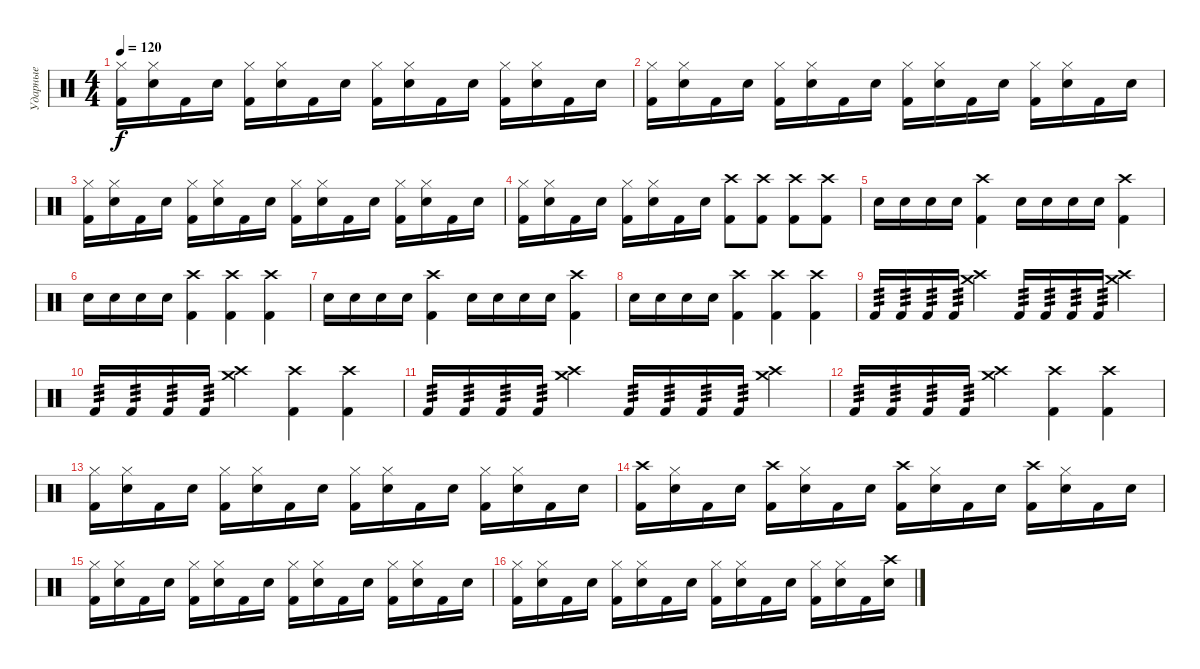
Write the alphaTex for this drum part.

\track ("Ударные" "Ударные") {instrument percussion}
\staff {score}
\articulation defaults
\ts (4 4)
\tempo 120
\clef neutral
\ks c
("Hi-Hat (closed)" "Kick (hit) 2").16{dy f} ("Hi-Hat (closed)" "Electric Snare (hit)").16 "Kick (hit) 2".16 "Electric Snare (hit)".16 ("Hi-Hat (closed)" "Kick (hit) 2").16 ("Hi-Hat (closed)" "Electric Snare (hit)").16 "Kick (hit) 2".16 "Electric Snare (hit)".16 ("Hi-Hat (closed)" "Kick (hit) 2").16 ("Hi-Hat (closed)" "Electric Snare (hit)").16 "Kick (hit) 2".16 "Electric Snare (hit)".16 ("Hi-Hat (closed)" "Kick (hit) 2").16 ("Hi-Hat (closed)" "Electric Snare (hit)").16 "Kick (hit) 2".16 "Electric Snare (hit)".16 |
("Hi-Hat (closed)" "Kick (hit) 2").16 ("Hi-Hat (closed)" "Electric Snare (hit)").16 "Kick (hit) 2".16 "Electric Snare (hit)".16 ("Hi-Hat (closed)" "Kick (hit) 2").16 ("Hi-Hat (closed)" "Electric Snare (hit)").16 "Kick (hit) 2".16 "Electric Snare (hit)".16 ("Hi-Hat (closed)" "Kick (hit) 2").16 ("Hi-Hat (closed)" "Electric Snare (hit)").16 "Kick (hit) 2".16 "Electric Snare (hit)".16 ("Hi-Hat (closed)" "Kick (hit) 2").16 ("Hi-Hat (closed)" "Electric Snare (hit)").16 "Kick (hit) 2".16 "Electric Snare (hit)".16 |
("Hi-Hat (closed)" "Kick (hit) 2").16 ("Hi-Hat (closed)" "Electric Snare (hit)").16 "Kick (hit) 2".16 "Electric Snare (hit)".16 ("Hi-Hat (closed)" "Kick (hit) 2").16 ("Hi-Hat (closed)" "Electric Snare (hit)").16 "Kick (hit) 2".16 "Electric Snare (hit)".16 ("Hi-Hat (closed)" "Kick (hit) 2").16 ("Hi-Hat (closed)" "Electric Snare (hit)").16 "Kick (hit) 2".16 "Electric Snare (hit)".16 ("Hi-Hat (closed)" "Kick (hit) 2").16 ("Hi-Hat (closed)" "Electric Snare (hit)").16 "Kick (hit) 2".16 "Electric Snare (hit)".16 |
("Hi-Hat (closed)" "Kick (hit) 2").16 ("Hi-Hat (closed)" "Electric Snare (hit)").16 "Kick (hit) 2".16 "Electric Snare (hit)".16 ("Hi-Hat (closed)" "Kick (hit) 2").16 ("Hi-Hat (closed)" "Electric Snare (hit)").16 "Kick (hit) 2".16 "Electric Snare (hit)".16 ("Crash high (hit)" "Kick (hit) 2").8 ("Crash high (hit)" "Kick (hit) 2").8 ("Crash high (hit)" "Kick (hit) 2").8 ("Crash high (hit)" "Kick (hit) 2").8 |
"Electric Snare (hit)".16 "Electric Snare (hit)".16 "Electric Snare (hit)".16 "Electric Snare (hit)".16 ("Crash high (hit)" "Kick (hit) 2").4 "Electric Snare (hit)".16 "Electric Snare (hit)".16 "Electric Snare (hit)".16 "Electric Snare (hit)".16 ("Crash high (hit)" "Kick (hit) 2").4 |
"Electric Snare (hit)".16 "Electric Snare (hit)".16 "Electric Snare (hit)".16 "Electric Snare (hit)".16 ("Crash high (hit)" "Kick (hit) 2").4 ("Crash high (hit)" "Kick (hit) 2").4 ("Kick (hit) 2" "Crash high (hit)").4 |
"Electric Snare (hit)".16 "Electric Snare (hit)".16 "Electric Snare (hit)".16 "Electric Snare (hit)".16 ("Crash high (hit)" "Kick (hit) 2").4 "Electric Snare (hit)".16 "Electric Snare (hit)".16 "Electric Snare (hit)".16 "Electric Snare (hit)".16 ("Crash high (hit)" "Kick (hit) 2").4 |
"Electric Snare (hit)".16 "Electric Snare (hit)".16 "Electric Snare (hit)".16 "Electric Snare (hit)".16 ("Crash high (hit)" "Kick (hit) 2").4 ("Crash high (hit)" "Kick (hit) 2").4 ("Kick (hit) 2" "Crash high (hit)").4 |
"Kick (hit) 2".16{tp 3} "Kick (hit) 2".16{tp 3} "Kick (hit) 2".16{tp 3} "Kick (hit) 2".16{tp 3} ("Crash medium (hit)" "Crash high (hit)").4 "Kick (hit) 2".16{tp 3} "Kick (hit) 2".16{tp 3} "Kick (hit) 2".16{tp 3} "Kick (hit) 2".16{tp 3} ("Crash medium (hit)" "Crash high (hit)").4 |
"Kick (hit) 2".16{tp 3} "Kick (hit) 2".16{tp 3} "Kick (hit) 2".16{tp 3} "Kick (hit) 2".16{tp 3} ("Crash medium (hit)" "Crash high (hit)").4 ("Crash high (hit)" "Kick (hit) 2").4 ("Kick (hit) 2" "Crash high (hit)").4 |
"Kick (hit) 2".16{tp 3} "Kick (hit) 2".16{tp 3} "Kick (hit) 2".16{tp 3} "Kick (hit) 2".16{tp 3} ("Crash medium (hit)" "Crash high (hit)").4 "Kick (hit) 2".16{tp 3} "Kick (hit) 2".16{tp 3} "Kick (hit) 2".16{tp 3} "Kick (hit) 2".16{tp 3} ("Crash medium (hit)" "Crash high (hit)").4 |
"Kick (hit) 2".16{tp 3} "Kick (hit) 2".16{tp 3} "Kick (hit) 2".16{tp 3} "Kick (hit) 2".16{tp 3} ("Crash medium (hit)" "Crash high (hit)").4 ("Crash high (hit)" "Kick (hit) 2").4 ("Kick (hit) 2" "Crash high (hit)").4 |
("Hi-Hat (closed)" "Kick (hit) 2").16 ("Hi-Hat (closed)" "Electric Snare (hit)").16 "Kick (hit) 2".16 "Electric Snare (hit)".16 ("Hi-Hat (closed)" "Kick (hit) 2").16 ("Hi-Hat (closed)" "Electric Snare (hit)").16 "Kick (hit) 2".16 "Electric Snare (hit)".16 ("Hi-Hat (closed)" "Kick (hit) 2").16 ("Hi-Hat (closed)" "Electric Snare (hit)").16 "Kick (hit) 2".16 "Electric Snare (hit)".16 ("Hi-Hat (closed)" "Kick (hit) 2").16 ("Hi-Hat (closed)" "Electric Snare (hit)").16 "Kick (hit) 2".16 "Electric Snare (hit)".16 |
("Crash high (hit)" "Kick (hit) 2").16 ("Hi-Hat (closed)" "Electric Snare (hit)").16 "Kick (hit) 2".16 "Electric Snare (hit)".16 ("Crash high (hit)" "Kick (hit) 2").16 ("Hi-Hat (closed)" "Electric Snare (hit)").16 "Kick (hit) 2".16 "Electric Snare (hit)".16 ("Crash high (hit)" "Kick (hit) 2").16 ("Hi-Hat (closed)" "Electric Snare (hit)").16 "Kick (hit) 2".16 "Electric Snare (hit)".16 ("Crash high (hit)" "Kick (hit) 2").16 ("Hi-Hat (closed)" "Electric Snare (hit)").16 "Kick (hit) 2".16 "Electric Snare (hit)".16 |
("Hi-Hat (closed)" "Kick (hit) 2").16 ("Hi-Hat (closed)" "Electric Snare (hit)").16 "Kick (hit) 2".16 "Electric Snare (hit)".16 ("Hi-Hat (closed)" "Kick (hit) 2").16 ("Hi-Hat (closed)" "Electric Snare (hit)").16 "Kick (hit) 2".16 "Electric Snare (hit)".16 ("Hi-Hat (closed)" "Kick (hit) 2").16 ("Hi-Hat (closed)" "Electric Snare (hit)").16 "Kick (hit) 2".16 "Electric Snare (hit)".16 ("Hi-Hat (closed)" "Kick (hit) 2").16 ("Hi-Hat (closed)" "Electric Snare (hit)").16 "Kick (hit) 2".16 "Electric Snare (hit)".16 |
("Hi-Hat (closed)" "Kick (hit) 2").16 ("Hi-Hat (closed)" "Electric Snare (hit)").16 "Kick (hit) 2".16 "Electric Snare (hit)".16 ("Hi-Hat (closed)" "Kick (hit) 2").16 ("Hi-Hat (closed)" "Electric Snare (hit)").16 "Kick (hit) 2".16 "Electric Snare (hit)".16 ("Hi-Hat (closed)" "Kick (hit) 2").16 ("Hi-Hat (closed)" "Electric Snare (hit)").16 "Kick (hit) 2".16 "Electric Snare (hit)".16 ("Hi-Hat (closed)" "Kick (hit) 2").16 ("Hi-Hat (closed)" "Electric Snare (hit)").16 "Kick (hit) 2".16 ("Crash high (hit)" "Electric Snare (hit)").16
